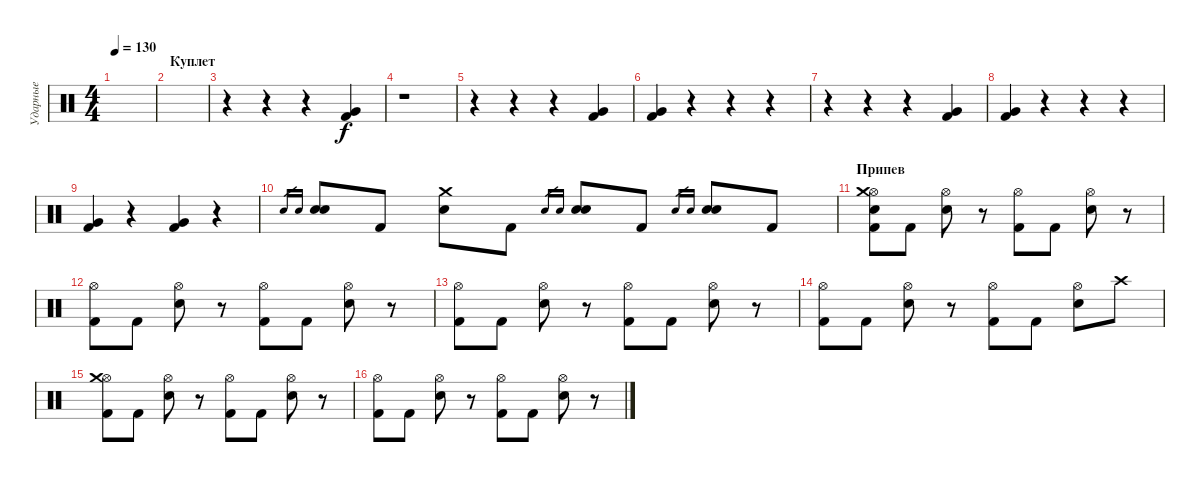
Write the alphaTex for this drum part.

\track ("Ударные" "Ударные") {instrument percussion}
\staff {score}
\articulation defaults
\ts (4 4)
\tempo 130
\clef neutral
\ks c
|
\section ("" "Куплет")
|
r.4 r.4 r.4 ("Very Low Tom (hit)" "Kick (hit) 2").4 |
r.1 |
r.4 r.4 r.4 ("Very Low Tom (hit)" "Kick (hit) 2").4 |
("Very Low Tom (hit)" "Kick (hit) 2").4 r.4 r.4 r.4 |
r.4 r.4 r.4 ("Very Low Tom (hit)" "Kick (hit) 2").4 |
("Very Low Tom (hit)" "Kick (hit) 2").4 r.4 r.4 r.4 |
("Very Low Tom (hit)" "Kick (hit) 2").4 r.4 ("Very Low Tom (hit)" "Kick (hit) 2").4 r.4 |
"Snare (hit) 2".16{gr} "Snare (hit) 2".16{gr} ("Snare (hit) 2" "Snare (hit) 2").8 "Kick (hit) 2".8 ("Snare (hit) 2" "Crash medium (hit)").8 "Kick (hit) 2".8 "Snare (hit) 2".16{gr} "Snare (hit) 2".16{gr} ("Snare (hit) 2" "Snare (hit) 2").8 "Kick (hit) 2".8 "Snare (hit) 2".16{gr} "Snare (hit) 2".16{gr} ("Snare (hit) 2" "Snare (hit) 2").8 "Kick (hit) 2".8 |
\section ("" "Припев")
("Kick (hit) 2" "Hi-Hat (open)" "Crash medium (hit)" "Snare (hit) 2").8 "Kick (hit) 2".8 ("Snare (hit) 2" "Hi-Hat (open)").8 r.8 ("Kick (hit) 2" "Hi-Hat (open)").8 "Kick (hit) 2".8 ("Snare (hit) 2" "Hi-Hat (open)").8 r.8 |
("Kick (hit) 2" "Hi-Hat (open)").8 "Kick (hit) 2".8 ("Snare (hit) 2" "Hi-Hat (open)").8 r.8 ("Kick (hit) 2" "Hi-Hat (open)").8 "Kick (hit) 2".8 ("Snare (hit) 2" "Hi-Hat (open)").8 r.8 |
("Kick (hit) 2" "Hi-Hat (open)").8 "Kick (hit) 2".8 ("Snare (hit) 2" "Hi-Hat (open)").8 r.8 ("Kick (hit) 2" "Hi-Hat (open)").8 "Kick (hit) 2".8 ("Snare (hit) 2" "Hi-Hat (open)").8 r.8 |
("Kick (hit) 2" "Hi-Hat (open)").8 "Kick (hit) 2".8 ("Snare (hit) 2" "Hi-Hat (open)").8 r.8 ("Kick (hit) 2" "Hi-Hat (open)").8 "Kick (hit) 2".8 ("Snare (hit) 2" "Hi-Hat (open)").8 "Crash high (hit)".8 |
("Kick (hit) 2" "Hi-Hat (open)" "Crash medium (hit)").8 "Kick (hit) 2".8 ("Snare (hit) 2" "Hi-Hat (open)").8 r.8 ("Kick (hit) 2" "Hi-Hat (open)").8 "Kick (hit) 2".8 ("Snare (hit) 2" "Hi-Hat (open)").8 r.8 |
("Kick (hit) 2" "Hi-Hat (open)").8 "Kick (hit) 2".8 ("Snare (hit) 2" "Hi-Hat (open)").8 r.8 ("Kick (hit) 2" "Hi-Hat (open)").8 "Kick (hit) 2".8 ("Snare (hit) 2" "Hi-Hat (open)").8 r.8
